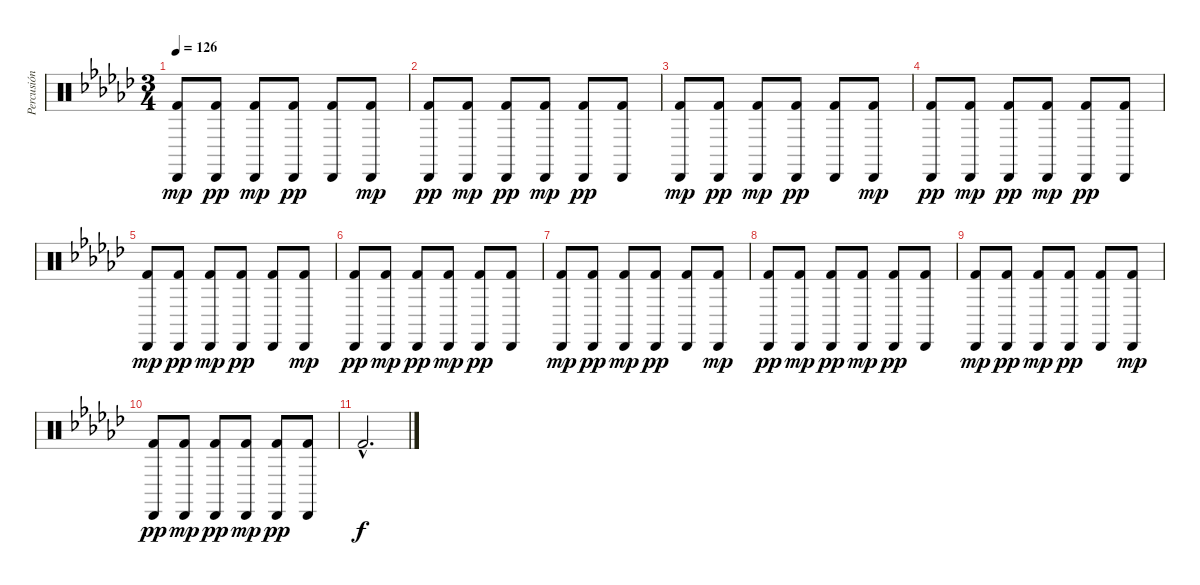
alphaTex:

\track ("Percusión" "Percusión") {instrument percussion}
\staff {score}
\articulation defaults
\ts (3 4)
\tempo 126
\clef neutral
\ks ebminor
("Cabasa (hit)" "Kick (hit) 2").8{dy mp} ("Cabasa (hit)" "Kick (hit) 2").8{dy pp} ("Cabasa (hit)" "Kick (hit) 2").8{dy mp} ("Cabasa (hit)" "Kick (hit) 2").8{dy pp} ("Cabasa (hit)" "Kick (hit) 2").8 ("Cabasa (hit)" "Kick (hit) 2").8{dy mp} |
("Cabasa (hit)" "Kick (hit) 2").8{dy pp} ("Cabasa (hit)" "Kick (hit) 2").8{dy mp} ("Cabasa (hit)" "Kick (hit) 2").8{dy pp} ("Cabasa (hit)" "Kick (hit) 2").8{dy mp} ("Cabasa (hit)" "Kick (hit) 2").8{dy pp} ("Cabasa (hit)" "Kick (hit) 2").8 |
("Cabasa (hit)" "Kick (hit) 2").8{dy mp} ("Cabasa (hit)" "Kick (hit) 2").8{dy pp} ("Cabasa (hit)" "Kick (hit) 2").8{dy mp} ("Cabasa (hit)" "Kick (hit) 2").8{dy pp} ("Cabasa (hit)" "Kick (hit) 2").8 ("Cabasa (hit)" "Kick (hit) 2").8{dy mp} |
("Cabasa (hit)" "Kick (hit) 2").8{dy pp} ("Cabasa (hit)" "Kick (hit) 2").8{dy mp} ("Cabasa (hit)" "Kick (hit) 2").8{dy pp} ("Cabasa (hit)" "Kick (hit) 2").8{dy mp} ("Cabasa (hit)" "Kick (hit) 2").8{dy pp} ("Cabasa (hit)" "Kick (hit) 2").8 |
("Cabasa (hit)" "Kick (hit) 2").8{dy mp} ("Cabasa (hit)" "Kick (hit) 2").8{dy pp} ("Cabasa (hit)" "Kick (hit) 2").8{dy mp} ("Cabasa (hit)" "Kick (hit) 2").8{dy pp} ("Cabasa (hit)" "Kick (hit) 2").8 ("Cabasa (hit)" "Kick (hit) 2").8{dy mp} |
("Cabasa (hit)" "Kick (hit) 2").8{dy pp} ("Cabasa (hit)" "Kick (hit) 2").8{dy mp} ("Cabasa (hit)" "Kick (hit) 2").8{dy pp} ("Cabasa (hit)" "Kick (hit) 2").8{dy mp} ("Cabasa (hit)" "Kick (hit) 2").8{dy pp} ("Cabasa (hit)" "Kick (hit) 2").8 |
("Cabasa (hit)" "Kick (hit) 2").8{dy mp} ("Cabasa (hit)" "Kick (hit) 2").8{dy pp} ("Cabasa (hit)" "Kick (hit) 2").8{dy mp} ("Cabasa (hit)" "Kick (hit) 2").8{dy pp} ("Cabasa (hit)" "Kick (hit) 2").8 ("Cabasa (hit)" "Kick (hit) 2").8{dy mp} |
("Cabasa (hit)" "Kick (hit) 2").8{dy pp} ("Cabasa (hit)" "Kick (hit) 2").8{dy mp} ("Cabasa (hit)" "Kick (hit) 2").8{dy pp} ("Cabasa (hit)" "Kick (hit) 2").8{dy mp} ("Cabasa (hit)" "Kick (hit) 2").8{dy pp} ("Cabasa (hit)" "Kick (hit) 2").8 |
("Cabasa (hit)" "Kick (hit) 2").8{dy mp} ("Cabasa (hit)" "Kick (hit) 2").8{dy pp} ("Cabasa (hit)" "Kick (hit) 2").8{dy mp} ("Cabasa (hit)" "Kick (hit) 2").8{dy pp} ("Cabasa (hit)" "Kick (hit) 2").8 ("Cabasa (hit)" "Kick (hit) 2").8{dy mp} |
("Cabasa (hit)" "Kick (hit) 2").8{dy pp} ("Cabasa (hit)" "Kick (hit) 2").8{dy mp} ("Cabasa (hit)" "Kick (hit) 2").8{dy pp} ("Cabasa (hit)" "Kick (hit) 2").8{dy mp} ("Cabasa (hit)" "Kick (hit) 2").8{dy pp} ("Cabasa (hit)" "Kick (hit) 2").8 |
"Kick (hit) 2"{hac}.2{d dy f}
